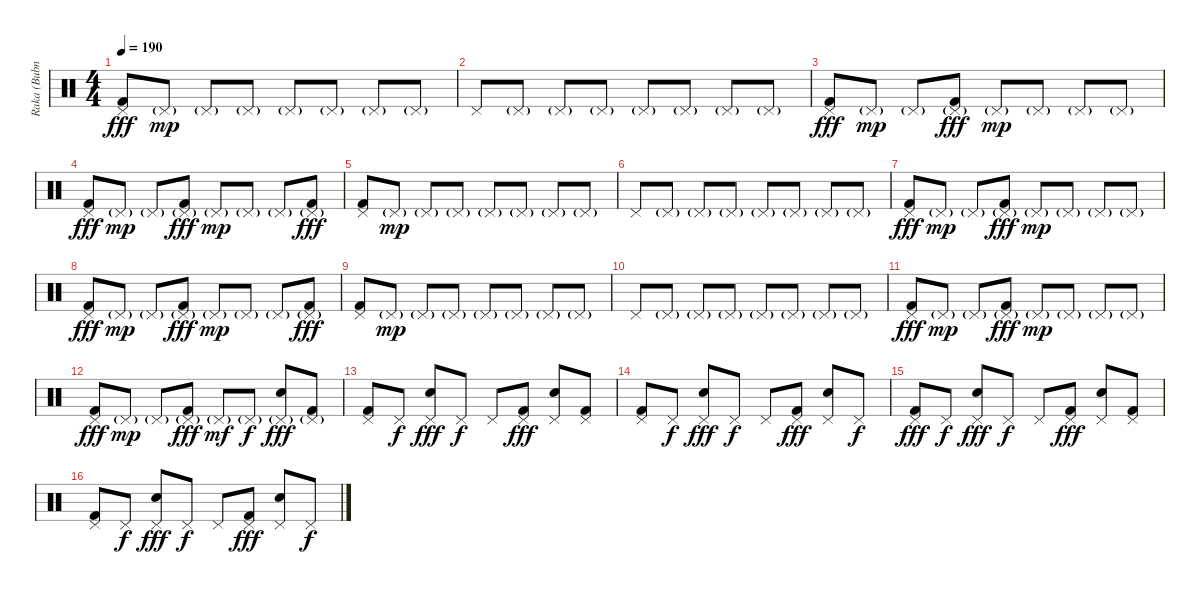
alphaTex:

\track ("Raka (Bubnjevi)" "Raka (Bubn") {instrument percussion}
\staff {score}
\articulation defaults
\ts (4 4)
\tempo 190
\clef neutral
\ks c
("Pedal Hi-Hat (hit)" "Kick (hit) 2").8{dy fff} "Pedal Hi-Hat (hit)"{g}.8{dy mp} "Pedal Hi-Hat (hit)"{g}.8 "Pedal Hi-Hat (hit)"{g}.8 "Pedal Hi-Hat (hit)"{g}.8 "Pedal Hi-Hat (hit)"{g}.8 "Pedal Hi-Hat (hit)"{g}.8 "Pedal Hi-Hat (hit)"{g}.8 |
"Pedal Hi-Hat (hit)".8 "Pedal Hi-Hat (hit)"{g}.8 "Pedal Hi-Hat (hit)"{g}.8 "Pedal Hi-Hat (hit)"{g}.8 "Pedal Hi-Hat (hit)"{g}.8 "Pedal Hi-Hat (hit)"{g}.8 "Pedal Hi-Hat (hit)"{g}.8 "Pedal Hi-Hat (hit)"{g}.8 |
("Pedal Hi-Hat (hit)" "Kick (hit) 2").8{dy fff} "Pedal Hi-Hat (hit)"{g}.8{dy mp} "Pedal Hi-Hat (hit)"{g}.8 ("Pedal Hi-Hat (hit)"{g} "Kick (hit) 2").8{dy fff} "Pedal Hi-Hat (hit)"{g}.8{dy mp} "Pedal Hi-Hat (hit)"{g}.8 "Pedal Hi-Hat (hit)"{g}.8 "Pedal Hi-Hat (hit)"{g}.8 |
("Pedal Hi-Hat (hit)" "Kick (hit) 2").8{dy fff} "Pedal Hi-Hat (hit)"{g}.8{dy mp} "Pedal Hi-Hat (hit)"{g}.8 ("Pedal Hi-Hat (hit)"{g} "Kick (hit) 2").8{dy fff} "Pedal Hi-Hat (hit)"{g}.8{dy mp} "Pedal Hi-Hat (hit)"{g}.8 "Pedal Hi-Hat (hit)"{g}.8 ("Pedal Hi-Hat (hit)"{g} "Kick (hit) 2").8{dy fff} |
("Pedal Hi-Hat (hit)" "Kick (hit) 2").8 "Pedal Hi-Hat (hit)"{g}.8{dy mp} "Pedal Hi-Hat (hit)"{g}.8 "Pedal Hi-Hat (hit)"{g}.8 "Pedal Hi-Hat (hit)"{g}.8 "Pedal Hi-Hat (hit)"{g}.8 "Pedal Hi-Hat (hit)"{g}.8 "Pedal Hi-Hat (hit)"{g}.8 |
"Pedal Hi-Hat (hit)".8 "Pedal Hi-Hat (hit)"{g}.8 "Pedal Hi-Hat (hit)"{g}.8 "Pedal Hi-Hat (hit)"{g}.8 "Pedal Hi-Hat (hit)"{g}.8 "Pedal Hi-Hat (hit)"{g}.8 "Pedal Hi-Hat (hit)"{g}.8 "Pedal Hi-Hat (hit)"{g}.8 |
("Pedal Hi-Hat (hit)" "Kick (hit) 2").8{dy fff} "Pedal Hi-Hat (hit)"{g}.8{dy mp} "Pedal Hi-Hat (hit)"{g}.8 ("Pedal Hi-Hat (hit)"{g} "Kick (hit) 2").8{dy fff} "Pedal Hi-Hat (hit)"{g}.8{dy mp} "Pedal Hi-Hat (hit)"{g}.8 "Pedal Hi-Hat (hit)"{g}.8 "Pedal Hi-Hat (hit)"{g}.8 |
("Pedal Hi-Hat (hit)" "Kick (hit) 2").8{dy fff} "Pedal Hi-Hat (hit)"{g}.8{dy mp} "Pedal Hi-Hat (hit)"{g}.8 ("Pedal Hi-Hat (hit)"{g} "Kick (hit) 2").8{dy fff} "Pedal Hi-Hat (hit)"{g}.8{dy mp} "Pedal Hi-Hat (hit)"{g}.8 "Pedal Hi-Hat (hit)"{g}.8 ("Pedal Hi-Hat (hit)"{g} "Kick (hit) 2").8{dy fff} |
("Pedal Hi-Hat (hit)" "Kick (hit) 2").8 "Pedal Hi-Hat (hit)"{g}.8{dy mp} "Pedal Hi-Hat (hit)"{g}.8 "Pedal Hi-Hat (hit)"{g}.8 "Pedal Hi-Hat (hit)"{g}.8 "Pedal Hi-Hat (hit)"{g}.8 "Pedal Hi-Hat (hit)"{g}.8 "Pedal Hi-Hat (hit)"{g}.8 |
"Pedal Hi-Hat (hit)".8 "Pedal Hi-Hat (hit)"{g}.8 "Pedal Hi-Hat (hit)"{g}.8 "Pedal Hi-Hat (hit)"{g}.8 "Pedal Hi-Hat (hit)"{g}.8 "Pedal Hi-Hat (hit)"{g}.8 "Pedal Hi-Hat (hit)"{g}.8 "Pedal Hi-Hat (hit)"{g}.8 |
("Pedal Hi-Hat (hit)" "Kick (hit) 2").8{dy fff} "Pedal Hi-Hat (hit)"{g}.8{dy mp} "Pedal Hi-Hat (hit)"{g}.8 ("Pedal Hi-Hat (hit)"{g} "Kick (hit) 2").8{dy fff} "Pedal Hi-Hat (hit)"{g}.8{dy mp} "Pedal Hi-Hat (hit)"{g}.8 "Pedal Hi-Hat (hit)"{g}.8 "Pedal Hi-Hat (hit)"{g}.8 |
("Pedal Hi-Hat (hit)" "Kick (hit) 2").8{dy fff} "Pedal Hi-Hat (hit)"{g}.8{dy mp} "Pedal Hi-Hat (hit)"{g}.8 ("Pedal Hi-Hat (hit)"{g} "Kick (hit) 2").8{dy fff} "Pedal Hi-Hat (hit)"{g}.8{dy mf} "Pedal Hi-Hat (hit)"{g}.8{dy f} ("Pedal Hi-Hat (hit)"{g} "Snare (hit) 2").8{dy fff} ("Pedal Hi-Hat (hit)"{g} "Kick (hit) 2").8 |
("Pedal Hi-Hat (hit)" "Kick (hit) 2").8 "Pedal Hi-Hat (hit)".8{dy f} ("Pedal Hi-Hat (hit)" "Snare (hit) 2").8{dy fff} "Pedal Hi-Hat (hit)".8{dy f} "Pedal Hi-Hat (hit)".8 ("Pedal Hi-Hat (hit)" "Kick (hit) 2").8{dy fff} ("Pedal Hi-Hat (hit)" "Snare (hit) 2").8 ("Pedal Hi-Hat (hit)" "Kick (hit) 2").8 |
("Pedal Hi-Hat (hit)" "Kick (hit) 2").8 "Pedal Hi-Hat (hit)".8{dy f} ("Pedal Hi-Hat (hit)" "Snare (hit) 2").8{dy fff} "Pedal Hi-Hat (hit)".8{dy f} "Pedal Hi-Hat (hit)".8 ("Pedal Hi-Hat (hit)" "Kick (hit) 2").8{dy fff} ("Pedal Hi-Hat (hit)" "Snare (hit) 2").8 "Pedal Hi-Hat (hit)".8{dy f} |
("Pedal Hi-Hat (hit)" "Kick (hit) 2").8{dy fff} "Pedal Hi-Hat (hit)".8{dy f} ("Pedal Hi-Hat (hit)" "Snare (hit) 2").8{dy fff} "Pedal Hi-Hat (hit)".8{dy f} "Pedal Hi-Hat (hit)".8 ("Pedal Hi-Hat (hit)" "Kick (hit) 2").8{dy fff} ("Pedal Hi-Hat (hit)" "Snare (hit) 2").8 ("Pedal Hi-Hat (hit)" "Kick (hit) 2").8 |
("Pedal Hi-Hat (hit)" "Kick (hit) 2").8 "Pedal Hi-Hat (hit)".8{dy f} ("Pedal Hi-Hat (hit)" "Snare (hit) 2").8{dy fff} "Pedal Hi-Hat (hit)".8{dy f} "Pedal Hi-Hat (hit)".8 ("Pedal Hi-Hat (hit)" "Kick (hit) 2").8{dy fff} ("Pedal Hi-Hat (hit)" "Snare (hit) 2").8 "Pedal Hi-Hat (hit)".8{dy f}
